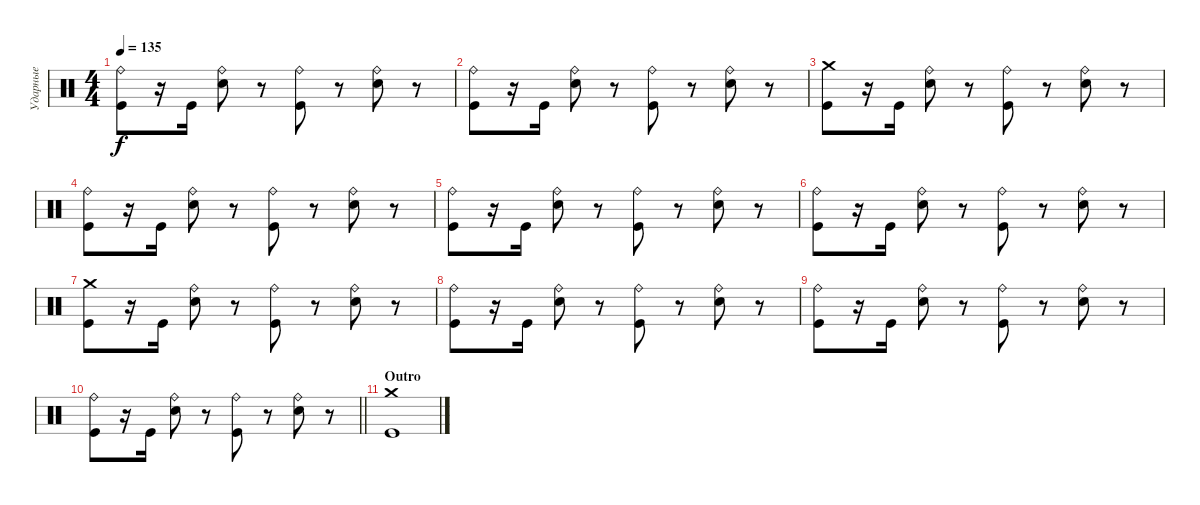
\track ("Ударные" "Ударные") {instrument percussion}
\staff {score}
\articulation defaults
\ts (4 4)
\tempo 135
\clef neutral
\ks c
("Ride (bell)" "Kick (hit)").8{dy f} r.16 "Kick (hit)".16 ("Ride (bell)" "Electric Snare (hit)").8 r.8 ("Ride (bell)" "Kick (hit)").8 r.8 ("Ride (bell)" "Electric Snare (hit)").8 r.8 |
("Ride (bell)" "Kick (hit)").8 r.16 "Kick (hit)".16 ("Ride (bell)" "Electric Snare (hit)").8 r.8 ("Ride (bell)" "Kick (hit)").8 r.8 ("Ride (bell)" "Electric Snare (hit)").8 r.8 |
("Crash medium (hit)" "Kick (hit)").8 r.16 "Kick (hit)".16 ("Ride (bell)" "Electric Snare (hit)").8 r.8 ("Ride (bell)" "Kick (hit)").8 r.8 ("Ride (bell)" "Electric Snare (hit)").8 r.8 |
("Ride (bell)" "Kick (hit)").8 r.16 "Kick (hit)".16 ("Ride (bell)" "Electric Snare (hit)").8 r.8 ("Ride (bell)" "Kick (hit)").8 r.8 ("Ride (bell)" "Electric Snare (hit)").8 r.8 |
("Ride (bell)" "Kick (hit)").8 r.16 "Kick (hit)".16 ("Ride (bell)" "Electric Snare (hit)").8 r.8 ("Ride (bell)" "Kick (hit)").8 r.8 ("Ride (bell)" "Electric Snare (hit)").8 r.8 |
("Ride (bell)" "Kick (hit)").8 r.16 "Kick (hit)".16 ("Ride (bell)" "Electric Snare (hit)").8 r.8 ("Ride (bell)" "Kick (hit)").8 r.8 ("Ride (bell)" "Electric Snare (hit)").8 r.8 |
("Crash medium (hit)" "Kick (hit)").8 r.16 "Kick (hit)".16 ("Ride (bell)" "Electric Snare (hit)").8 r.8 ("Ride (bell)" "Kick (hit)").8 r.8 ("Ride (bell)" "Electric Snare (hit)").8 r.8 |
("Ride (bell)" "Kick (hit)").8 r.16 "Kick (hit)".16 ("Ride (bell)" "Electric Snare (hit)").8 r.8 ("Ride (bell)" "Kick (hit)").8 r.8 ("Ride (bell)" "Electric Snare (hit)").8 r.8 |
("Ride (bell)" "Kick (hit)").8 r.16 "Kick (hit)".16 ("Ride (bell)" "Electric Snare (hit)").8 r.8 ("Ride (bell)" "Kick (hit)").8 r.8 ("Ride (bell)" "Electric Snare (hit)").8 r.8 |
\barLineRight lightlight
("Ride (bell)" "Kick (hit)").8 r.16 "Kick (hit)".16 ("Ride (bell)" "Electric Snare (hit)").8 r.8 ("Ride (bell)" "Kick (hit)").8 r.8 ("Ride (bell)" "Electric Snare (hit)").8 r.8 |
\section ("" "Outro")
("Crash medium (hit)" "Kick (hit)").1
